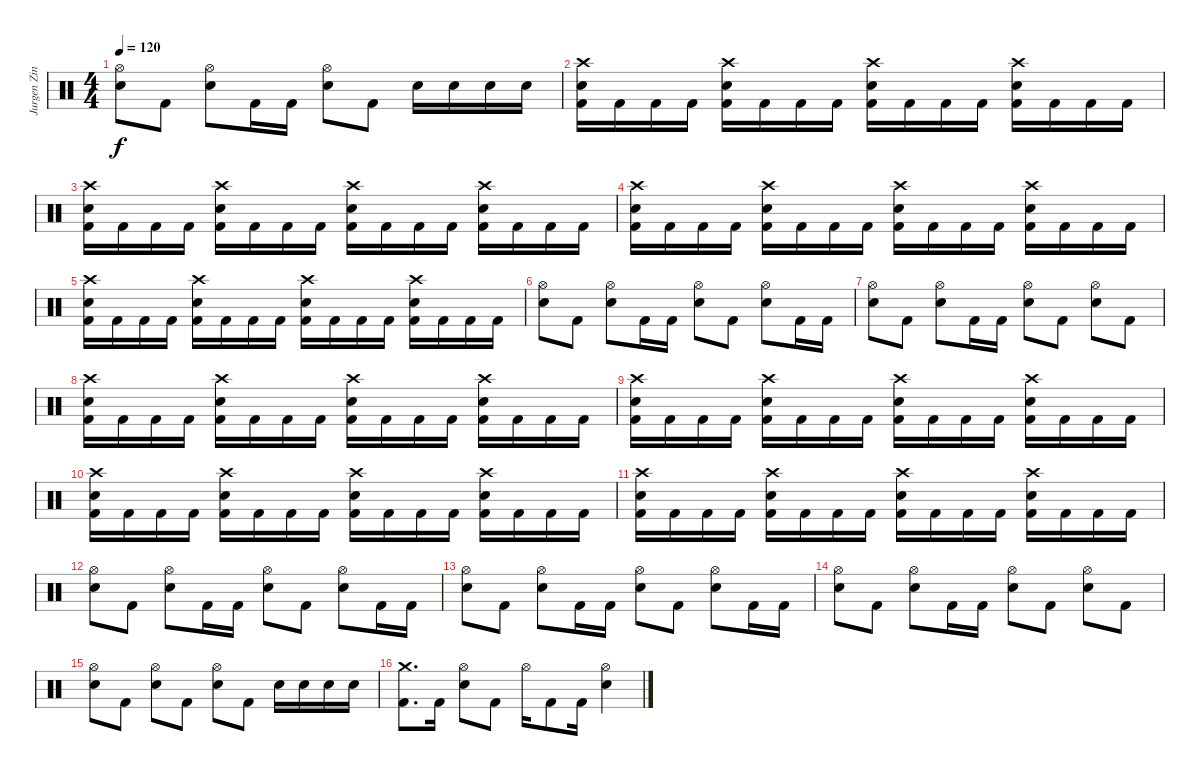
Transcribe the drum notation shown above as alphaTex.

\track ("Jurgen Zing" "Jurgen Zin") {instrument percussion}
\staff {score}
\articulation defaults
\ts (4 4)
\tempo 120
\clef neutral
\ks c
("Hi-Hat (open)" "Electric Snare (hit)").8{dy f} "Kick (hit) 2".8 ("Hi-Hat (open)" "Electric Snare (hit)").8 "Kick (hit) 2".16 "Kick (hit) 2".16 ("Hi-Hat (open)" "Electric Snare (hit)").8 "Kick (hit) 2".8 "Electric Snare (hit)".16 "Electric Snare (hit)".16 "Electric Snare (hit)".16 "Electric Snare (hit)".16 |
("Crash high (hit)" "Electric Snare (hit)" "Kick (hit) 2").16 "Kick (hit) 2".16 "Kick (hit) 2".16 "Kick (hit) 2".16 ("Crash high (hit)" "Electric Snare (hit)" "Kick (hit) 2").16 "Kick (hit) 2".16 "Kick (hit) 2".16 "Kick (hit) 2".16 ("Crash high (hit)" "Electric Snare (hit)" "Kick (hit) 2").16 "Kick (hit) 2".16 "Kick (hit) 2".16 "Kick (hit) 2".16 ("Crash high (hit)" "Electric Snare (hit)" "Kick (hit) 2").16 "Kick (hit) 2".16 "Kick (hit) 2".16 "Kick (hit) 2".16 |
("Crash high (hit)" "Electric Snare (hit)" "Kick (hit) 2").16 "Kick (hit) 2".16 "Kick (hit) 2".16 "Kick (hit) 2".16 ("Crash high (hit)" "Electric Snare (hit)" "Kick (hit) 2").16 "Kick (hit) 2".16 "Kick (hit) 2".16 "Kick (hit) 2".16 ("Crash high (hit)" "Electric Snare (hit)" "Kick (hit) 2").16 "Kick (hit) 2".16 "Kick (hit) 2".16 "Kick (hit) 2".16 ("Crash high (hit)" "Electric Snare (hit)" "Kick (hit) 2").16 "Kick (hit) 2".16 "Kick (hit) 2".16 "Kick (hit) 2".16 |
("Crash high (hit)" "Electric Snare (hit)" "Kick (hit) 2").16 "Kick (hit) 2".16 "Kick (hit) 2".16 "Kick (hit) 2".16 ("Crash high (hit)" "Electric Snare (hit)" "Kick (hit) 2").16 "Kick (hit) 2".16 "Kick (hit) 2".16 "Kick (hit) 2".16 ("Crash high (hit)" "Electric Snare (hit)" "Kick (hit) 2").16 "Kick (hit) 2".16 "Kick (hit) 2".16 "Kick (hit) 2".16 ("Crash high (hit)" "Electric Snare (hit)" "Kick (hit) 2").16 "Kick (hit) 2".16 "Kick (hit) 2".16 "Kick (hit) 2".16 |
("Crash high (hit)" "Electric Snare (hit)" "Kick (hit) 2").16 "Kick (hit) 2".16 "Kick (hit) 2".16 "Kick (hit) 2".16 ("Crash high (hit)" "Electric Snare (hit)" "Kick (hit) 2").16 "Kick (hit) 2".16 "Kick (hit) 2".16 "Kick (hit) 2".16 ("Crash high (hit)" "Electric Snare (hit)" "Kick (hit) 2").16 "Kick (hit) 2".16 "Kick (hit) 2".16 "Kick (hit) 2".16 ("Crash high (hit)" "Electric Snare (hit)" "Kick (hit) 2").16 "Kick (hit) 2".16 "Kick (hit) 2".16 "Kick (hit) 2".16 |
("Hi-Hat (open)" "Electric Snare (hit)").8 "Kick (hit) 2".8 ("Hi-Hat (open)" "Electric Snare (hit)").8 "Kick (hit) 2".16 "Kick (hit) 2".16 ("Hi-Hat (open)" "Electric Snare (hit)").8 "Kick (hit) 2".8 ("Hi-Hat (open)" "Electric Snare (hit)").8 "Kick (hit) 2".16 "Kick (hit) 2".16 |
("Hi-Hat (open)" "Electric Snare (hit)").8 "Kick (hit) 2".8 ("Hi-Hat (open)" "Electric Snare (hit)").8 "Kick (hit) 2".16 "Kick (hit) 2".16 ("Hi-Hat (open)" "Electric Snare (hit)").8 "Kick (hit) 2".8 ("Hi-Hat (open)" "Electric Snare (hit)").8 "Kick (hit) 2".8 |
("Crash high (hit)" "Electric Snare (hit)" "Kick (hit) 2").16 "Kick (hit) 2".16 "Kick (hit) 2".16 "Kick (hit) 2".16 ("Crash high (hit)" "Electric Snare (hit)" "Kick (hit) 2").16 "Kick (hit) 2".16 "Kick (hit) 2".16 "Kick (hit) 2".16 ("Crash high (hit)" "Electric Snare (hit)" "Kick (hit) 2").16 "Kick (hit) 2".16 "Kick (hit) 2".16 "Kick (hit) 2".16 ("Crash high (hit)" "Electric Snare (hit)" "Kick (hit) 2").16 "Kick (hit) 2".16 "Kick (hit) 2".16 "Kick (hit) 2".16 |
("Crash high (hit)" "Electric Snare (hit)" "Kick (hit) 2").16 "Kick (hit) 2".16 "Kick (hit) 2".16 "Kick (hit) 2".16 ("Crash high (hit)" "Electric Snare (hit)" "Kick (hit) 2").16 "Kick (hit) 2".16 "Kick (hit) 2".16 "Kick (hit) 2".16 ("Crash high (hit)" "Electric Snare (hit)" "Kick (hit) 2").16 "Kick (hit) 2".16 "Kick (hit) 2".16 "Kick (hit) 2".16 ("Crash high (hit)" "Electric Snare (hit)" "Kick (hit) 2").16 "Kick (hit) 2".16 "Kick (hit) 2".16 "Kick (hit) 2".16 |
("Crash high (hit)" "Electric Snare (hit)" "Kick (hit) 2").16 "Kick (hit) 2".16 "Kick (hit) 2".16 "Kick (hit) 2".16 ("Crash high (hit)" "Electric Snare (hit)" "Kick (hit) 2").16 "Kick (hit) 2".16 "Kick (hit) 2".16 "Kick (hit) 2".16 ("Crash high (hit)" "Electric Snare (hit)" "Kick (hit) 2").16 "Kick (hit) 2".16 "Kick (hit) 2".16 "Kick (hit) 2".16 ("Crash high (hit)" "Electric Snare (hit)" "Kick (hit) 2").16 "Kick (hit) 2".16 "Kick (hit) 2".16 "Kick (hit) 2".16 |
("Crash high (hit)" "Electric Snare (hit)" "Kick (hit) 2").16 "Kick (hit) 2".16 "Kick (hit) 2".16 "Kick (hit) 2".16 ("Crash high (hit)" "Electric Snare (hit)" "Kick (hit) 2").16 "Kick (hit) 2".16 "Kick (hit) 2".16 "Kick (hit) 2".16 ("Crash high (hit)" "Electric Snare (hit)" "Kick (hit) 2").16 "Kick (hit) 2".16 "Kick (hit) 2".16 "Kick (hit) 2".16 ("Crash high (hit)" "Electric Snare (hit)" "Kick (hit) 2").16 "Kick (hit) 2".16 "Kick (hit) 2".16 "Kick (hit) 2".16 |
("Hi-Hat (open)" "Electric Snare (hit)").8 "Kick (hit) 2".8 ("Hi-Hat (open)" "Electric Snare (hit)").8 "Kick (hit) 2".16 "Kick (hit) 2".16 ("Hi-Hat (open)" "Electric Snare (hit)").8 "Kick (hit) 2".8 ("Hi-Hat (open)" "Electric Snare (hit)").8 "Kick (hit) 2".16 "Kick (hit) 2".16 |
("Hi-Hat (open)" "Electric Snare (hit)").8 "Kick (hit) 2".8 ("Hi-Hat (open)" "Electric Snare (hit)").8 "Kick (hit) 2".16 "Kick (hit) 2".16 ("Hi-Hat (open)" "Electric Snare (hit)").8 "Kick (hit) 2".8 ("Hi-Hat (open)" "Electric Snare (hit)").8 "Kick (hit) 2".16 "Kick (hit) 2".16 |
("Hi-Hat (open)" "Electric Snare (hit)").8 "Kick (hit) 2".8 ("Hi-Hat (open)" "Electric Snare (hit)").8 "Kick (hit) 2".16 "Kick (hit) 2".16 ("Hi-Hat (open)" "Electric Snare (hit)").8 "Kick (hit) 2".8 ("Hi-Hat (open)" "Electric Snare (hit)").8 "Kick (hit) 2".8 |
("Hi-Hat (open)" "Electric Snare (hit)").8 "Kick (hit) 2".8 ("Hi-Hat (open)" "Electric Snare (hit)").8 "Kick (hit) 2".8 ("Hi-Hat (open)" "Electric Snare (hit)").8 "Kick (hit) 2".8 "Electric Snare (hit)".16 "Electric Snare (hit)".16 "Electric Snare (hit)".16 "Electric Snare (hit)".16 |
("Crash medium (hit)" "Kick (hit) 2").8{d} "Kick (hit) 2".16 ("Hi-Hat (open)" "Electric Snare (hit)").8 "Kick (hit) 2".8 "Hi-Hat (open)".16 "Kick (hit) 2".8 "Kick (hit) 2".16 ("Hi-Hat (open)" "Electric Snare (hit)").4
